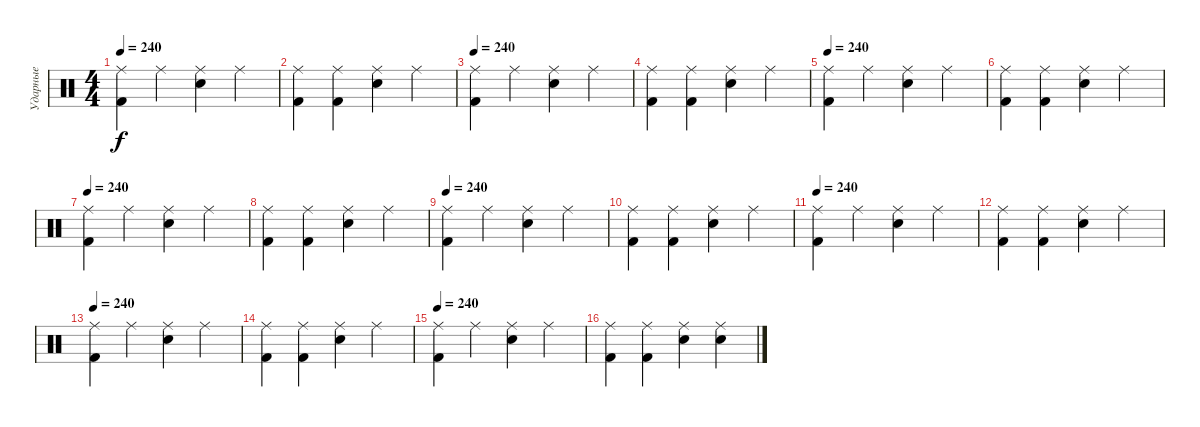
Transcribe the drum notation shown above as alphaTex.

\track ("Ударные" "Ударные") {instrument percussion}
\staff {score}
\articulation defaults
\ts (4 4)
\tempo 240
\clef neutral
\ks c
("Ride (middle)" "Kick (hit) 2").4{dy f} "Ride (middle)".4 ("Ride (middle)" "Electric Snare (hit)").4 "Ride (middle)".4 |
("Ride (middle)" "Kick (hit) 2").4 ("Ride (middle)" "Kick (hit) 2").4 ("Ride (middle)" "Electric Snare (hit)").4 "Ride (middle)".4 |
\tempo 240
("Ride (middle)" "Kick (hit) 2").4 "Ride (middle)".4 ("Ride (middle)" "Electric Snare (hit)").4 "Ride (middle)".4 |
("Ride (middle)" "Kick (hit) 2").4 ("Ride (middle)" "Kick (hit) 2").4 ("Ride (middle)" "Electric Snare (hit)").4 "Ride (middle)".4 |
\tempo 240
("Ride (middle)" "Kick (hit) 2").4 "Ride (middle)".4 ("Ride (middle)" "Electric Snare (hit)").4 "Ride (middle)".4 |
("Ride (middle)" "Kick (hit) 2").4 ("Ride (middle)" "Kick (hit) 2").4 ("Ride (middle)" "Electric Snare (hit)").4 "Ride (middle)".4 |
\tempo 240
("Ride (middle)" "Kick (hit) 2").4 "Ride (middle)".4 ("Ride (middle)" "Electric Snare (hit)").4 "Ride (middle)".4 |
("Ride (middle)" "Kick (hit) 2").4 ("Ride (middle)" "Kick (hit) 2").4 ("Ride (middle)" "Electric Snare (hit)").4 "Ride (middle)".4 |
\tempo 240
("Ride (middle)" "Kick (hit) 2").4 "Ride (middle)".4 ("Ride (middle)" "Electric Snare (hit)").4 "Ride (middle)".4 |
("Ride (middle)" "Kick (hit) 2").4 ("Ride (middle)" "Kick (hit) 2").4 ("Ride (middle)" "Electric Snare (hit)").4 "Ride (middle)".4 |
\tempo 240
("Ride (middle)" "Kick (hit) 2").4 "Ride (middle)".4 ("Ride (middle)" "Electric Snare (hit)").4 "Ride (middle)".4 |
("Ride (middle)" "Kick (hit) 2").4 ("Ride (middle)" "Kick (hit) 2").4 ("Ride (middle)" "Electric Snare (hit)").4 "Ride (middle)".4 |
\tempo 240
("Ride (middle)" "Kick (hit) 2").4 "Ride (middle)".4 ("Ride (middle)" "Electric Snare (hit)").4 "Ride (middle)".4 |
("Ride (middle)" "Kick (hit) 2").4 ("Ride (middle)" "Kick (hit) 2").4 ("Ride (middle)" "Electric Snare (hit)").4 "Ride (middle)".4 |
\tempo 240
("Ride (middle)" "Kick (hit) 2").4 "Ride (middle)".4 ("Ride (middle)" "Electric Snare (hit)").4 "Ride (middle)".4 |
("Ride (middle)" "Kick (hit) 2").4 ("Ride (middle)" "Kick (hit) 2").4 ("Ride (middle)" "Electric Snare (hit)").4 ("Ride (middle)" "Electric Snare (hit)").4
